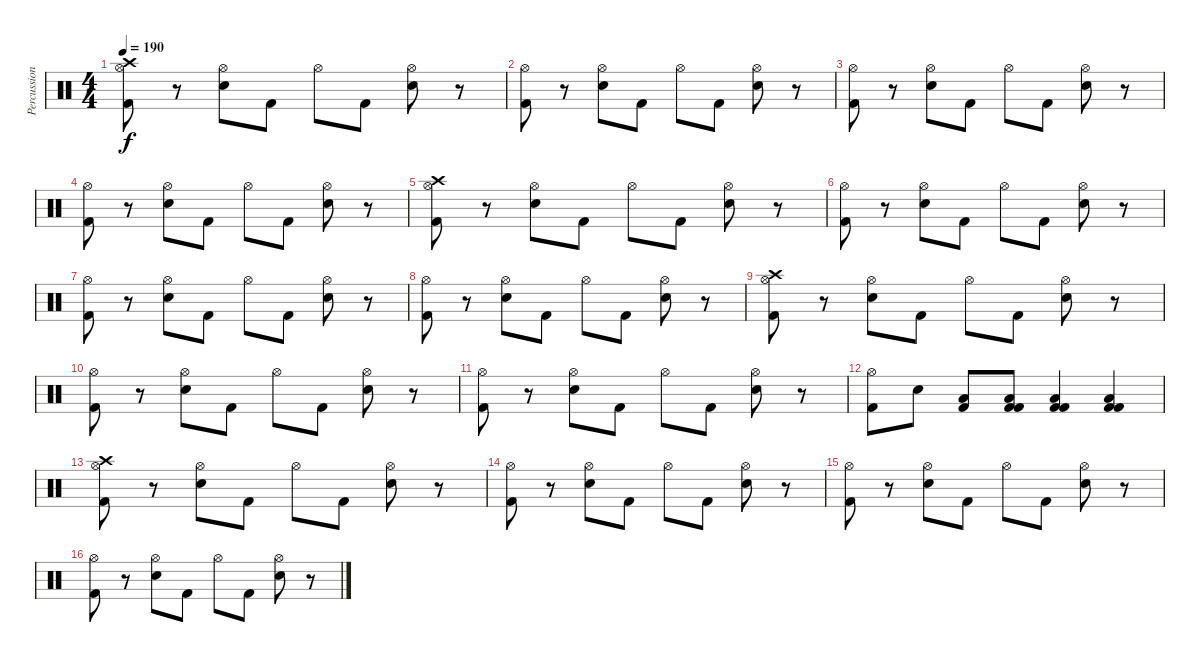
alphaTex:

\track ("Percussioni" "Percussion") {instrument percussion}
\staff {score}
\articulation defaults
\ts (4 4)
\tempo 190
\clef neutral
\ks c
("Hi-Hat (open)" "Crash high (hit)" "Kick (hit) 2").8{dy f} r.8 ("Hi-Hat (open)" "Snare (hit) 2").8 "Kick (hit) 2".8 "Hi-Hat (open)".8 "Kick (hit) 2".8 ("Hi-Hat (open)" "Snare (hit) 2").8 r.8 |
("Hi-Hat (open)" "Kick (hit) 2").8 r.8 ("Hi-Hat (open)" "Snare (hit) 2").8 "Kick (hit) 2".8 "Hi-Hat (open)".8 "Kick (hit) 2".8 ("Hi-Hat (open)" "Snare (hit) 2").8 r.8 |
("Hi-Hat (open)" "Kick (hit) 2").8 r.8 ("Hi-Hat (open)" "Snare (hit) 2").8 "Kick (hit) 2".8 "Hi-Hat (open)".8 "Kick (hit) 2".8 ("Hi-Hat (open)" "Snare (hit) 2").8 r.8 |
("Hi-Hat (open)" "Kick (hit) 2").8 r.8 ("Hi-Hat (open)" "Snare (hit) 2").8 "Kick (hit) 2".8 "Hi-Hat (open)".8 "Kick (hit) 2".8 ("Hi-Hat (open)" "Snare (hit) 2").8 r.8 |
("Hi-Hat (open)" "Crash high (hit)" "Kick (hit) 2").8 r.8 ("Hi-Hat (open)" "Snare (hit) 2").8 "Kick (hit) 2".8 "Hi-Hat (open)".8 "Kick (hit) 2".8 ("Hi-Hat (open)" "Snare (hit) 2").8 r.8 |
("Hi-Hat (open)" "Kick (hit) 2").8 r.8 ("Hi-Hat (open)" "Snare (hit) 2").8 "Kick (hit) 2".8 "Hi-Hat (open)".8 "Kick (hit) 2".8 ("Hi-Hat (open)" "Snare (hit) 2").8 r.8 |
("Hi-Hat (open)" "Kick (hit) 2").8 r.8 ("Hi-Hat (open)" "Snare (hit) 2").8 "Kick (hit) 2".8 "Hi-Hat (open)".8 "Kick (hit) 2".8 ("Hi-Hat (open)" "Snare (hit) 2").8 r.8 |
("Hi-Hat (open)" "Kick (hit) 2").8 r.8 ("Hi-Hat (open)" "Snare (hit) 2").8 "Kick (hit) 2".8 "Hi-Hat (open)".8 "Kick (hit) 2".8 ("Hi-Hat (open)" "Snare (hit) 2").8 r.8 |
("Hi-Hat (open)" "Crash high (hit)" "Kick (hit) 2").8 r.8 ("Hi-Hat (open)" "Snare (hit) 2").8 "Kick (hit) 2".8 "Hi-Hat (open)".8 "Kick (hit) 2".8 ("Hi-Hat (open)" "Snare (hit) 2").8 r.8 |
("Hi-Hat (open)" "Kick (hit) 2").8 r.8 ("Hi-Hat (open)" "Snare (hit) 2").8 "Kick (hit) 2".8 "Hi-Hat (open)".8 "Kick (hit) 2".8 ("Hi-Hat (open)" "Snare (hit) 2").8 r.8 |
("Hi-Hat (open)" "Kick (hit) 2").8 r.8 ("Hi-Hat (open)" "Snare (hit) 2").8 "Kick (hit) 2".8 "Hi-Hat (open)".8 "Kick (hit) 2".8 ("Hi-Hat (open)" "Snare (hit) 2").8 r.8 |
("Kick (hit) 2" "Hi-Hat (open)").8 "Snare (hit) 2".8 ("Low Tom (hit)" "Kick (hit) 2").8 ("Low Tom (hit)" "Kick (hit) 2" "Kick (hit) 2").8 ("Kick (hit) 2" "Low Tom (hit)" "Kick (hit) 2").4 ("Kick (hit) 2" "Kick (hit) 2" "Low Tom (hit)").4 |
("Hi-Hat (open)" "Crash high (hit)" "Kick (hit) 2").8 r.8 ("Hi-Hat (open)" "Snare (hit) 2").8 "Kick (hit) 2".8 "Hi-Hat (open)".8 "Kick (hit) 2".8 ("Hi-Hat (open)" "Snare (hit) 2").8 r.8 |
("Hi-Hat (open)" "Kick (hit) 2").8 r.8 ("Hi-Hat (open)" "Snare (hit) 2").8 "Kick (hit) 2".8 "Hi-Hat (open)".8 "Kick (hit) 2".8 ("Hi-Hat (open)" "Snare (hit) 2").8 r.8 |
("Hi-Hat (open)" "Kick (hit) 2").8 r.8 ("Hi-Hat (open)" "Snare (hit) 2").8 "Kick (hit) 2".8 "Hi-Hat (open)".8 "Kick (hit) 2".8 ("Hi-Hat (open)" "Snare (hit) 2").8 r.8 |
("Hi-Hat (open)" "Kick (hit) 2").8 r.8 ("Hi-Hat (open)" "Snare (hit) 2").8 "Kick (hit) 2".8 "Hi-Hat (open)".8 "Kick (hit) 2".8 ("Hi-Hat (open)" "Snare (hit) 2").8 r.8
